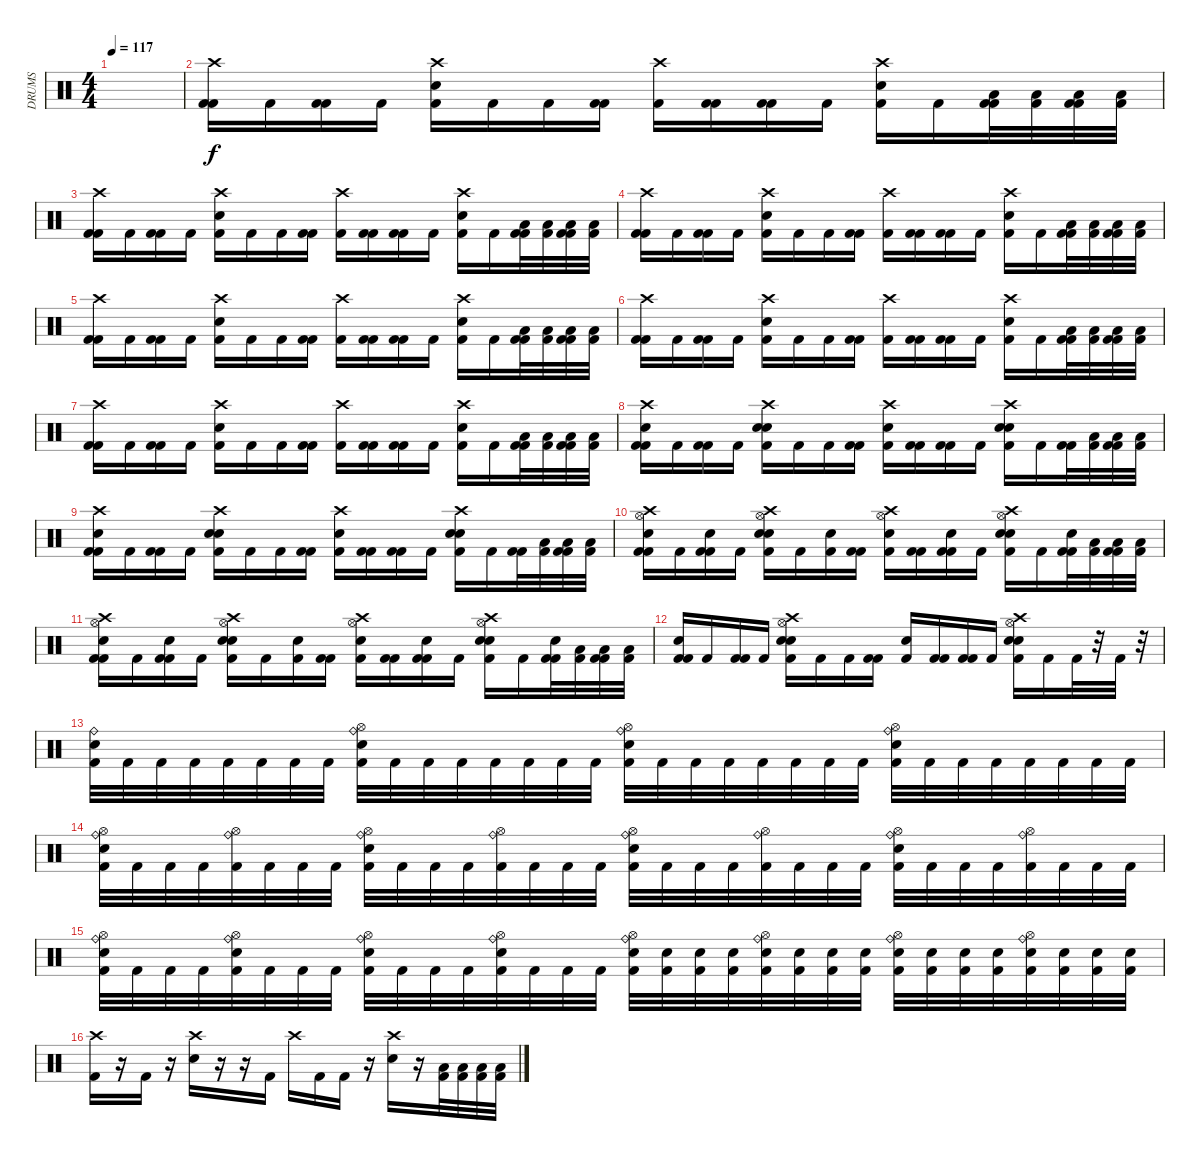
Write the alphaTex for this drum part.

\track ("DRUMS" "DRUMS") {instrument percussion}
\staff {score}
\articulation defaults
\ts (4 4)
\tempo 117
\clef neutral
\ks c
|
("Crash high (hit)" "Kick (hit) 2" "Kick (hit) 2").16 "Kick (hit) 2".16 ("Kick (hit) 2" "Kick (hit) 2").16 "Kick (hit) 2".16 ("Crash high (hit)" "Kick (hit) 2" "Electric Snare (hit)").16 "Kick (hit) 2".16 "Kick (hit) 2".16 ("Kick (hit) 2" "Kick (hit) 2").16 ("Crash high (hit)" "Kick (hit) 2").16 ("Kick (hit) 2" "Kick (hit) 2").16 ("Kick (hit) 2" "Kick (hit) 2").16 "Kick (hit) 2".16 ("Crash high (hit)" "Kick (hit) 2" "Electric Snare (hit)").16 "Kick (hit) 2".16 ("Kick (hit) 2" "Low Tom (hit)" "Kick (hit) 2").32 ("Low Tom (hit)" "Kick (hit) 2").32 ("Kick (hit) 2" "Low Tom (hit)" "Kick (hit) 2").32 ("Low Tom (hit)" "Kick (hit) 2").32 |
("Crash high (hit)" "Kick (hit) 2" "Kick (hit) 2").16 "Kick (hit) 2".16 ("Kick (hit) 2" "Kick (hit) 2").16 "Kick (hit) 2".16 ("Crash high (hit)" "Kick (hit) 2" "Electric Snare (hit)").16 "Kick (hit) 2".16 "Kick (hit) 2".16 ("Kick (hit) 2" "Kick (hit) 2").16 ("Crash high (hit)" "Kick (hit) 2").16 ("Kick (hit) 2" "Kick (hit) 2").16 ("Kick (hit) 2" "Kick (hit) 2").16 "Kick (hit) 2".16 ("Crash high (hit)" "Kick (hit) 2" "Electric Snare (hit)").16 "Kick (hit) 2".16 ("Kick (hit) 2" "Low Tom (hit)" "Kick (hit) 2").32 ("Low Tom (hit)" "Kick (hit) 2").32 ("Kick (hit) 2" "Low Tom (hit)" "Kick (hit) 2").32 ("Low Tom (hit)" "Kick (hit) 2").32 |
("Crash high (hit)" "Kick (hit) 2" "Kick (hit) 2").16 "Kick (hit) 2".16 ("Kick (hit) 2" "Kick (hit) 2").16 "Kick (hit) 2".16 ("Crash high (hit)" "Kick (hit) 2" "Electric Snare (hit)").16 "Kick (hit) 2".16 "Kick (hit) 2".16 ("Kick (hit) 2" "Kick (hit) 2").16 ("Crash high (hit)" "Kick (hit) 2").16 ("Kick (hit) 2" "Kick (hit) 2").16 ("Kick (hit) 2" "Kick (hit) 2").16 "Kick (hit) 2".16 ("Crash high (hit)" "Kick (hit) 2" "Electric Snare (hit)").16 "Kick (hit) 2".16 ("Kick (hit) 2" "Low Tom (hit)" "Kick (hit) 2").32 ("Low Tom (hit)" "Kick (hit) 2").32 ("Kick (hit) 2" "Low Tom (hit)" "Kick (hit) 2").32 ("Low Tom (hit)" "Kick (hit) 2").32 |
("Crash high (hit)" "Kick (hit) 2" "Kick (hit) 2").16 "Kick (hit) 2".16 ("Kick (hit) 2" "Kick (hit) 2").16 "Kick (hit) 2".16 ("Crash high (hit)" "Kick (hit) 2" "Electric Snare (hit)").16 "Kick (hit) 2".16 "Kick (hit) 2".16 ("Kick (hit) 2" "Kick (hit) 2").16 ("Crash high (hit)" "Kick (hit) 2").16 ("Kick (hit) 2" "Kick (hit) 2").16 ("Kick (hit) 2" "Kick (hit) 2").16 "Kick (hit) 2".16 ("Crash high (hit)" "Kick (hit) 2" "Electric Snare (hit)").16 "Kick (hit) 2".16 ("Kick (hit) 2" "Low Tom (hit)" "Kick (hit) 2").32 ("Low Tom (hit)" "Kick (hit) 2").32 ("Kick (hit) 2" "Low Tom (hit)" "Kick (hit) 2").32 ("Low Tom (hit)" "Kick (hit) 2").32 |
("Crash high (hit)" "Kick (hit) 2" "Kick (hit) 2").16 "Kick (hit) 2".16 ("Kick (hit) 2" "Kick (hit) 2").16 "Kick (hit) 2".16 ("Crash high (hit)" "Kick (hit) 2" "Electric Snare (hit)").16 "Kick (hit) 2".16 "Kick (hit) 2".16 ("Kick (hit) 2" "Kick (hit) 2").16 ("Crash high (hit)" "Kick (hit) 2").16 ("Kick (hit) 2" "Kick (hit) 2").16 ("Kick (hit) 2" "Kick (hit) 2").16 "Kick (hit) 2".16 ("Crash high (hit)" "Kick (hit) 2" "Electric Snare (hit)").16 "Kick (hit) 2".16 ("Kick (hit) 2" "Low Tom (hit)" "Kick (hit) 2").32 ("Low Tom (hit)" "Kick (hit) 2").32 ("Kick (hit) 2" "Low Tom (hit)" "Kick (hit) 2").32 ("Low Tom (hit)" "Kick (hit) 2").32 |
("Crash high (hit)" "Kick (hit) 2" "Kick (hit) 2").16 "Kick (hit) 2".16 ("Kick (hit) 2" "Kick (hit) 2").16 "Kick (hit) 2".16 ("Crash high (hit)" "Kick (hit) 2" "Electric Snare (hit)").16 "Kick (hit) 2".16 "Kick (hit) 2".16 ("Kick (hit) 2" "Kick (hit) 2").16 ("Crash high (hit)" "Kick (hit) 2").16 ("Kick (hit) 2" "Kick (hit) 2").16 ("Kick (hit) 2" "Kick (hit) 2").16 "Kick (hit) 2".16 ("Crash high (hit)" "Kick (hit) 2" "Electric Snare (hit)").16 "Kick (hit) 2".16 ("Kick (hit) 2" "Low Tom (hit)" "Kick (hit) 2").32 ("Low Tom (hit)" "Kick (hit) 2").32 ("Kick (hit) 2" "Low Tom (hit)" "Kick (hit) 2").32 ("Low Tom (hit)" "Kick (hit) 2").32 |
("Crash high (hit)" "Kick (hit) 2" "Electric Snare (hit)" "Kick (hit) 2").16 "Kick (hit) 2".16 ("Kick (hit) 2" "Kick (hit) 2").16 "Kick (hit) 2".16 ("Crash high (hit)" "Kick (hit) 2" "Electric Snare (hit)" "Electric Snare (hit)").16 "Kick (hit) 2".16 "Kick (hit) 2".16 ("Kick (hit) 2" "Kick (hit) 2").16 ("Crash high (hit)" "Kick (hit) 2" "Electric Snare (hit)").16 ("Kick (hit) 2" "Kick (hit) 2").16 ("Kick (hit) 2" "Kick (hit) 2").16 "Kick (hit) 2".16 ("Crash high (hit)" "Kick (hit) 2" "Electric Snare (hit)" "Electric Snare (hit)").16 "Kick (hit) 2".16 ("Kick (hit) 2" "Kick (hit) 2").32 ("Low Tom (hit)" "Kick (hit) 2").32 ("Kick (hit) 2" "Low Tom (hit)" "Kick (hit) 2").32 ("Low Tom (hit)" "Kick (hit) 2").32 |
("Crash high (hit)" "Kick (hit) 2" "Electric Snare (hit)" "Kick (hit) 2").16 "Kick (hit) 2".16 ("Kick (hit) 2" "Kick (hit) 2").16 "Kick (hit) 2".16 ("Crash high (hit)" "Kick (hit) 2" "Electric Snare (hit)" "Electric Snare (hit)").16 "Kick (hit) 2".16 "Kick (hit) 2".16 ("Kick (hit) 2" "Kick (hit) 2").16 ("Crash high (hit)" "Kick (hit) 2" "Electric Snare (hit)").16 ("Kick (hit) 2" "Kick (hit) 2").16 ("Kick (hit) 2" "Kick (hit) 2").16 "Kick (hit) 2".16 ("Crash high (hit)" "Kick (hit) 2" "Electric Snare (hit)" "Electric Snare (hit)").16 "Kick (hit) 2".16 ("Kick (hit) 2" "Kick (hit) 2").32 ("Low Tom (hit)" "Kick (hit) 2").32 ("Kick (hit) 2" "Low Tom (hit)" "Kick (hit) 2").32 ("Low Tom (hit)" "Kick (hit) 2").32 |
("Hi-Hat (open)" "Crash high (hit)" "Kick (hit) 2" "Electric Snare (hit)" "Kick (hit) 2").16 "Kick (hit) 2".16 ("Kick (hit) 2" "Electric Snare (hit)" "Kick (hit) 2").16 "Kick (hit) 2".16 ("Hi-Hat (open)" "Crash high (hit)" "Kick (hit) 2" "Electric Snare (hit)" "Electric Snare (hit)").16 "Kick (hit) 2".16 ("Kick (hit) 2" "Electric Snare (hit)").16 ("Kick (hit) 2" "Kick (hit) 2").16 ("Hi-Hat (open)" "Crash high (hit)" "Kick (hit) 2" "Electric Snare (hit)").16 ("Kick (hit) 2" "Kick (hit) 2").16 ("Kick (hit) 2" "Electric Snare (hit)" "Kick (hit) 2").16 "Kick (hit) 2".16 ("Hi-Hat (open)" "Crash high (hit)" "Kick (hit) 2" "Electric Snare (hit)" "Electric Snare (hit)").16 "Kick (hit) 2".16 ("Kick (hit) 2" "Electric Snare (hit)" "Kick (hit) 2").32 ("Low Tom (hit)" "Kick (hit) 2").32 ("Kick (hit) 2" "Low Tom (hit)" "Kick (hit) 2").32 ("Low Tom (hit)" "Kick (hit) 2").32 |
("Hi-Hat (open)" "Crash high (hit)" "Kick (hit) 2" "Electric Snare (hit)" "Kick (hit) 2").16 "Kick (hit) 2".16 ("Kick (hit) 2" "Electric Snare (hit)" "Kick (hit) 2").16 "Kick (hit) 2".16 ("Hi-Hat (open)" "Crash high (hit)" "Kick (hit) 2" "Electric Snare (hit)" "Electric Snare (hit)").16 "Kick (hit) 2".16 ("Kick (hit) 2" "Electric Snare (hit)").16 ("Kick (hit) 2" "Kick (hit) 2").16 ("Hi-Hat (open)" "Crash high (hit)" "Kick (hit) 2" "Electric Snare (hit)").16 ("Kick (hit) 2" "Kick (hit) 2").16 ("Kick (hit) 2" "Electric Snare (hit)" "Kick (hit) 2").16 "Kick (hit) 2".16 ("Hi-Hat (open)" "Crash high (hit)" "Kick (hit) 2" "Electric Snare (hit)" "Electric Snare (hit)").16 "Kick (hit) 2".16 ("Kick (hit) 2" "Electric Snare (hit)" "Kick (hit) 2").32 ("Low Tom (hit)" "Kick (hit) 2").32 ("Kick (hit) 2" "Low Tom (hit)" "Kick (hit) 2").32 ("Low Tom (hit)" "Kick (hit) 2").32 |
("Kick (hit) 2" "Electric Snare (hit)" "Kick (hit) 2").16 "Kick (hit) 2".16 ("Kick (hit) 2" "Kick (hit) 2").16 "Kick (hit) 2".16 ("Hi-Hat (open)" "Crash high (hit)" "Kick (hit) 2" "Electric Snare (hit)" "Electric Snare (hit)").16 "Kick (hit) 2".16 "Kick (hit) 2".16 ("Kick (hit) 2" "Kick (hit) 2").16 ("Kick (hit) 2" "Electric Snare (hit)").16 ("Kick (hit) 2" "Kick (hit) 2").16 ("Kick (hit) 2" "Kick (hit) 2").16 "Kick (hit) 2".16 ("Hi-Hat (open)" "Crash high (hit)" "Kick (hit) 2" "Electric Snare (hit)" "Electric Snare (hit)").16 "Kick (hit) 2".16 "Kick (hit) 2".32 r.32 "Kick (hit) 2".32 r.32 |
("Ride (bell)" "Kick (hit) 2" "Electric Snare (hit)").32 "Kick (hit) 2".32 "Kick (hit) 2".32 "Kick (hit) 2".32 "Kick (hit) 2".32 "Kick (hit) 2".32 "Kick (hit) 2".32 "Kick (hit) 2".32 ("Hi-Hat (open)" "Ride (bell)" "Kick (hit) 2" "Electric Snare (hit)").32 "Kick (hit) 2".32 "Kick (hit) 2".32 "Kick (hit) 2".32 "Kick (hit) 2".32 "Kick (hit) 2".32 "Kick (hit) 2".32 "Kick (hit) 2".32 ("Hi-Hat (open)" "Ride (bell)" "Kick (hit) 2" "Electric Snare (hit)").32 "Kick (hit) 2".32 "Kick (hit) 2".32 "Kick (hit) 2".32 "Kick (hit) 2".32 "Kick (hit) 2".32 "Kick (hit) 2".32 "Kick (hit) 2".32 ("Hi-Hat (open)" "Ride (bell)" "Kick (hit) 2" "Electric Snare (hit)").32 "Kick (hit) 2".32 "Kick (hit) 2".32 "Kick (hit) 2".32 "Kick (hit) 2".32 "Kick (hit) 2".32 "Kick (hit) 2".32 "Kick (hit) 2".32 |
("Hi-Hat (open)" "Ride (bell)" "Kick (hit) 2" "Electric Snare (hit)").32 "Kick (hit) 2".32 "Kick (hit) 2".32 "Kick (hit) 2".32 ("Hi-Hat (open)" "Ride (bell)" "Kick (hit) 2").32 "Kick (hit) 2".32 "Kick (hit) 2".32 "Kick (hit) 2".32 ("Hi-Hat (open)" "Ride (bell)" "Kick (hit) 2" "Electric Snare (hit)").32 "Kick (hit) 2".32 "Kick (hit) 2".32 "Kick (hit) 2".32 ("Hi-Hat (open)" "Ride (bell)" "Kick (hit) 2").32 "Kick (hit) 2".32 "Kick (hit) 2".32 "Kick (hit) 2".32 ("Hi-Hat (open)" "Ride (bell)" "Kick (hit) 2" "Electric Snare (hit)").32 "Kick (hit) 2".32 "Kick (hit) 2".32 "Kick (hit) 2".32 ("Hi-Hat (open)" "Ride (bell)" "Kick (hit) 2").32 "Kick (hit) 2".32 "Kick (hit) 2".32 "Kick (hit) 2".32 ("Hi-Hat (open)" "Ride (bell)" "Kick (hit) 2" "Electric Snare (hit)").32 "Kick (hit) 2".32 "Kick (hit) 2".32 "Kick (hit) 2".32 ("Hi-Hat (open)" "Ride (bell)" "Kick (hit) 2").32 "Kick (hit) 2".32 "Kick (hit) 2".32 "Kick (hit) 2".32 |
("Hi-Hat (open)" "Ride (bell)" "Kick (hit) 2" "Electric Snare (hit)").32 "Kick (hit) 2".32 "Kick (hit) 2".32 "Kick (hit) 2".32 ("Hi-Hat (open)" "Ride (bell)" "Kick (hit) 2" "Electric Snare (hit)").32 "Kick (hit) 2".32 "Kick (hit) 2".32 "Kick (hit) 2".32 ("Hi-Hat (open)" "Ride (bell)" "Kick (hit) 2" "Electric Snare (hit)").32 "Kick (hit) 2".32 "Kick (hit) 2".32 "Kick (hit) 2".32 ("Hi-Hat (open)" "Ride (bell)" "Kick (hit) 2" "Electric Snare (hit)").32 "Kick (hit) 2".32 "Kick (hit) 2".32 "Kick (hit) 2".32 ("Hi-Hat (open)" "Ride (bell)" "Kick (hit) 2" "Electric Snare (hit)").32 ("Kick (hit) 2" "Electric Snare (hit)").32 ("Kick (hit) 2" "Electric Snare (hit)").32 ("Kick (hit) 2" "Electric Snare (hit)").32 ("Hi-Hat (open)" "Ride (bell)" "Kick (hit) 2" "Electric Snare (hit)").32 ("Kick (hit) 2" "Electric Snare (hit)").32 ("Kick (hit) 2" "Electric Snare (hit)").32 ("Kick (hit) 2" "Electric Snare (hit)").32 ("Hi-Hat (open)" "Ride (bell)" "Kick (hit) 2" "Electric Snare (hit)").32 ("Kick (hit) 2" "Electric Snare (hit)").32 ("Kick (hit) 2" "Electric Snare (hit)").32 ("Kick (hit) 2" "Electric Snare (hit)").32 ("Hi-Hat (open)" "Ride (bell)" "Kick (hit) 2" "Electric Snare (hit)").32 ("Kick (hit) 2" "Electric Snare (hit)").32 ("Kick (hit) 2" "Electric Snare (hit)").32 ("Kick (hit) 2" "Electric Snare (hit)").32 |
("Crash high (hit)" "Kick (hit) 2").16 r.16 "Kick (hit) 2".16 r.16 ("Crash high (hit)" "Electric Snare (hit)").16 r.16 r.16 "Kick (hit) 2".16 "Crash high (hit)".16 "Kick (hit) 2".16 "Kick (hit) 2".16 r.16 ("Crash high (hit)" "Electric Snare (hit)").16 r.16 ("Low Tom (hit)" "Kick (hit) 2").32 ("Low Tom (hit)" "Kick (hit) 2").32 ("Low Tom (hit)" "Kick (hit) 2").32 ("Low Tom (hit)" "Kick (hit) 2").32
